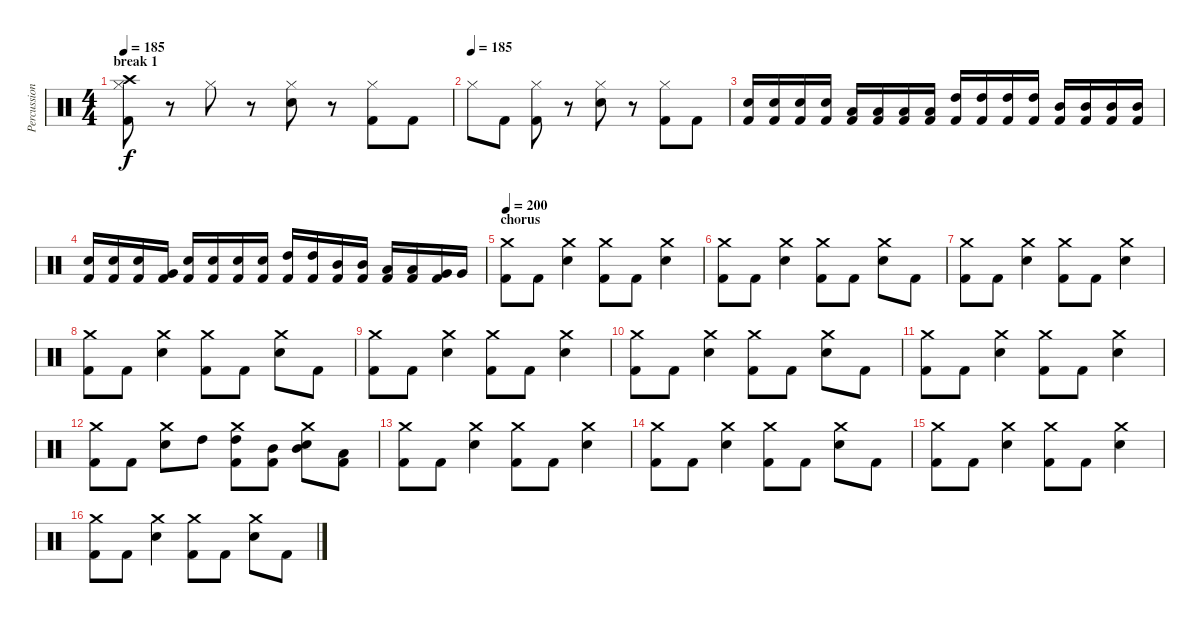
\track ("Percussions" "Percussion") {instrument percussion}
\staff {score}
\articulation defaults
\ts (4 4)
\section ("" "break 1")
\tempo 185
\clef neutral
\ks c
("Crash high (hit)" "Hi-Hat (closed)" "Kick (hit) 2").8{dy f} r.8 "Hi-Hat (closed)".8 r.8 ("Hi-Hat (closed)" "Electric Snare (hit)").8 r.8 ("Hi-Hat (closed)" "Kick (hit) 2").8 "Kick (hit) 2".8 |
\tempo (185)
"Hi-Hat (closed)".8 "Kick (hit) 2".8 ("Hi-Hat (closed)" "Kick (hit) 2").8 r.8 ("Hi-Hat (closed)" "Electric Snare (hit)").8 r.8 ("Hi-Hat (closed)" "Kick (hit) 2").8 "Kick (hit) 2".8 |
("Electric Snare (hit)" "Kick (hit) 2").16 ("Electric Snare (hit)" "Kick (hit) 2").16 ("Electric Snare (hit)" "Kick (hit) 2").16 ("Electric Snare (hit)" "Kick (hit) 2").16 ("Low Tom (hit)" "Kick (hit) 2").16 ("Low Tom (hit)" "Kick (hit) 2").16 ("Low Tom (hit)" "Kick (hit) 2").16 ("Low Tom (hit)" "Kick (hit) 2").16 ("High Tom (hit)" "Kick (hit) 2").16 ("High Tom (hit)" "Kick (hit) 2").16 ("High Tom (hit)" "Kick (hit) 2").16 ("High Tom (hit)" "Kick (hit) 2").16 ("Mid Tom (hit)" "Kick (hit) 2").16 ("Mid Tom (hit)" "Kick (hit) 2").16 ("Mid Tom (hit)" "Kick (hit) 2").16 ("Mid Tom (hit)" "Kick (hit) 2").16 |
("Electric Snare (hit)" "Kick (hit) 2").16 ("Electric Snare (hit)" "Kick (hit) 2").16 ("Electric Snare (hit)" "Kick (hit) 2").16 ("Very Low Tom (hit)" "Kick (hit) 2").16 ("Electric Snare (hit)" "Kick (hit) 2").16 ("Electric Snare (hit)" "Kick (hit) 2").16 ("Electric Snare (hit)" "Kick (hit) 2").16 ("Electric Snare (hit)" "Kick (hit) 2").16 ("High Tom (hit)" "Kick (hit) 2").16 ("High Tom (hit)" "Kick (hit) 2").16 ("Mid Tom (hit)" "Kick (hit) 2").16 ("Mid Tom (hit)" "Kick (hit) 2").16 ("Low Tom (hit)" "Kick (hit) 2").16 ("Low Tom (hit)" "Kick (hit) 2").16 ("Very Low Tom (hit)" "Kick (hit) 2").16 "Very Low Tom (hit)".16 |
\section ("" "chorus")
\tempo 200
("Crash medium (hit)" "Kick (hit) 2").8 "Kick (hit) 2".8 ("Crash medium (hit)" "Electric Snare (hit)").4 ("Crash medium (hit)" "Kick (hit) 2").8 "Kick (hit) 2".8 ("Crash medium (hit)" "Electric Snare (hit)").4 |
("Crash medium (hit)" "Kick (hit) 2").8 "Kick (hit) 2".8 ("Crash medium (hit)" "Electric Snare (hit)").4 ("Crash medium (hit)" "Kick (hit) 2").8 "Kick (hit) 2".8 ("Crash medium (hit)" "Electric Snare (hit)").8 "Kick (hit) 2".8 |
("Crash medium (hit)" "Kick (hit) 2").8 "Kick (hit) 2".8 ("Crash medium (hit)" "Electric Snare (hit)").4 ("Crash medium (hit)" "Kick (hit) 2").8 "Kick (hit) 2".8 ("Crash medium (hit)" "Electric Snare (hit)").4 |
("Crash medium (hit)" "Kick (hit) 2").8 "Kick (hit) 2".8 ("Crash medium (hit)" "Electric Snare (hit)").4 ("Crash medium (hit)" "Kick (hit) 2").8 "Kick (hit) 2".8 ("Crash medium (hit)" "Electric Snare (hit)").8 "Kick (hit) 2".8 |
("Crash medium (hit)" "Kick (hit) 2").8 "Kick (hit) 2".8 ("Crash medium (hit)" "Electric Snare (hit)").4 ("Crash medium (hit)" "Kick (hit) 2").8 "Kick (hit) 2".8 ("Crash medium (hit)" "Electric Snare (hit)").4 |
("Crash medium (hit)" "Kick (hit) 2").8 "Kick (hit) 2".8 ("Crash medium (hit)" "Electric Snare (hit)").4 ("Crash medium (hit)" "Kick (hit) 2").8 "Kick (hit) 2".8 ("Crash medium (hit)" "Electric Snare (hit)").8 "Kick (hit) 2".8 |
("Crash medium (hit)" "Kick (hit) 2").8 "Kick (hit) 2".8 ("Crash medium (hit)" "Electric Snare (hit)").4 ("Crash medium (hit)" "Kick (hit) 2").8 "Kick (hit) 2".8 ("Crash medium (hit)" "Electric Snare (hit)").4 |
("Crash medium (hit)" "Kick (hit) 2").8 "Kick (hit) 2".8 ("Crash medium (hit)" "Electric Snare (hit)").8 "High Tom (hit)".8 ("Crash medium (hit)" "High Tom (hit)" "Kick (hit) 2").8 ("Mid Tom (hit)" "Kick (hit) 2").8 ("Crash medium (hit)" "Mid Tom (hit)" "Electric Snare (hit)").8 ("Low Tom (hit)" "Kick (hit) 2").8 |
("Crash medium (hit)" "Kick (hit) 2").8 "Kick (hit) 2".8 ("Crash medium (hit)" "Electric Snare (hit)").4 ("Crash medium (hit)" "Kick (hit) 2").8 "Kick (hit) 2".8 ("Crash medium (hit)" "Electric Snare (hit)").4 |
("Crash medium (hit)" "Kick (hit) 2").8 "Kick (hit) 2".8 ("Crash medium (hit)" "Electric Snare (hit)").4 ("Crash medium (hit)" "Kick (hit) 2").8 "Kick (hit) 2".8 ("Crash medium (hit)" "Electric Snare (hit)").8 "Kick (hit) 2".8 |
("Crash medium (hit)" "Kick (hit) 2").8 "Kick (hit) 2".8 ("Crash medium (hit)" "Electric Snare (hit)").4 ("Crash medium (hit)" "Kick (hit) 2").8 "Kick (hit) 2".8 ("Crash medium (hit)" "Electric Snare (hit)").4 |
("Crash medium (hit)" "Kick (hit) 2").8 "Kick (hit) 2".8 ("Crash medium (hit)" "Electric Snare (hit)").4 ("Crash medium (hit)" "Kick (hit) 2").8 "Kick (hit) 2".8 ("Crash medium (hit)" "Electric Snare (hit)").8 "Kick (hit) 2".8
